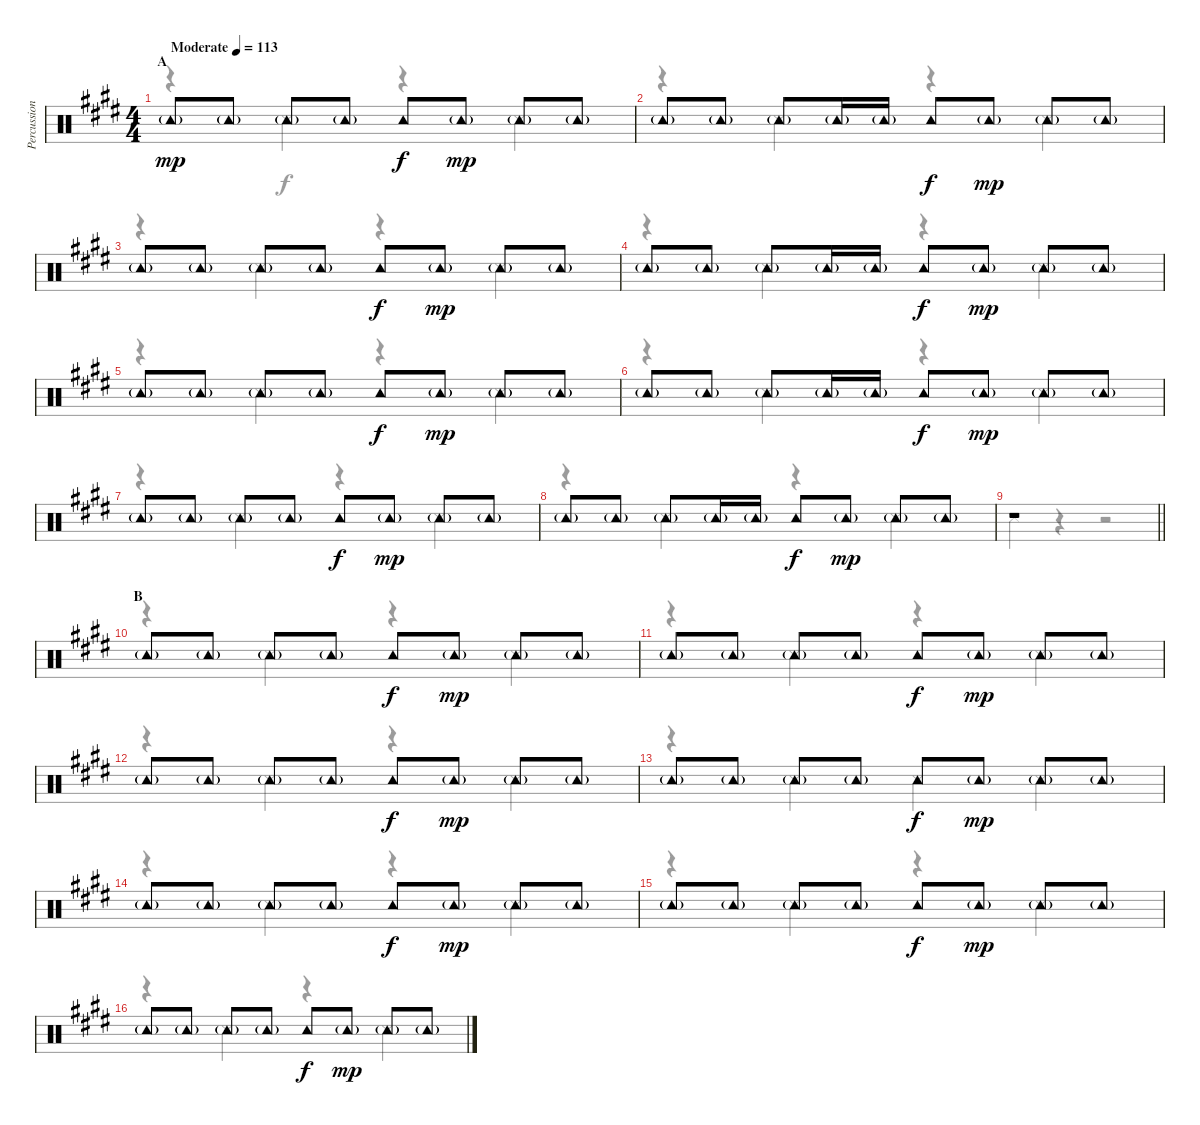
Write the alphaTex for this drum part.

\track ("Percussion" "Percussion") {instrument percussion}
\staff {score}
\articulation defaults
\voice
\ts (4 4)
\section ("" "A")
\tempo (113 "Moderate")
\clef neutral
\ks e "Tambourine (hit)"{g}.8{dy mp} "Tambourine (hit)"{g}.8 "Tambourine (hit)"{g}.8 "Tambourine (hit)"{g}.8 "Tambourine (hit)".8{dy f} "Tambourine (hit)"{g}.8{dy mp} "Tambourine (hit)"{g}.8 "Tambourine (hit)"{g}.8
|
"Tambourine (hit)"{g}.8 "Tambourine (hit)"{g}.8 "Tambourine (hit)"{g}.8 "Tambourine (hit)"{g}.16 "Tambourine (hit)"{g}.16 "Tambourine (hit)".8{dy f} "Tambourine (hit)"{g}.8{dy mp} "Tambourine (hit)"{g}.8 "Tambourine (hit)"{g}.8 |
"Tambourine (hit)"{g}.8 "Tambourine (hit)"{g}.8 "Tambourine (hit)"{g}.8 "Tambourine (hit)"{g}.8 "Tambourine (hit)".8{dy f} "Tambourine (hit)"{g}.8{dy mp} "Tambourine (hit)"{g}.8 "Tambourine (hit)"{g}.8 |
"Tambourine (hit)"{g}.8 "Tambourine (hit)"{g}.8 "Tambourine (hit)"{g}.8 "Tambourine (hit)"{g}.16 "Tambourine (hit)"{g}.16 "Tambourine (hit)".8{dy f} "Tambourine (hit)"{g}.8{dy mp} "Tambourine (hit)"{g}.8 "Tambourine (hit)"{g}.8 |
"Tambourine (hit)"{g}.8 "Tambourine (hit)"{g}.8 "Tambourine (hit)"{g}.8 "Tambourine (hit)"{g}.8 "Tambourine (hit)".8{dy f} "Tambourine (hit)"{g}.8{dy mp} "Tambourine (hit)"{g}.8 "Tambourine (hit)"{g}.8 |
"Tambourine (hit)"{g}.8 "Tambourine (hit)"{g}.8 "Tambourine (hit)"{g}.8 "Tambourine (hit)"{g}.16 "Tambourine (hit)"{g}.16 "Tambourine (hit)".8{dy f} "Tambourine (hit)"{g}.8{dy mp} "Tambourine (hit)"{g}.8 "Tambourine (hit)"{g}.8 |
"Tambourine (hit)"{g}.8 "Tambourine (hit)"{g}.8 "Tambourine (hit)"{g}.8 "Tambourine (hit)"{g}.8 "Tambourine (hit)".8{dy f} "Tambourine (hit)"{g}.8{dy mp} "Tambourine (hit)"{g}.8 "Tambourine (hit)"{g}.8 |
"Tambourine (hit)"{g}.8 "Tambourine (hit)"{g}.8 "Tambourine (hit)"{g}.8 "Tambourine (hit)"{g}.16 "Tambourine (hit)"{g}.16 "Tambourine (hit)".8{dy f} "Tambourine (hit)"{g}.8{dy mp} "Tambourine (hit)"{g}.8 "Tambourine (hit)"{g}.8 |
\barLineRight lightlight
r.1 |
\section ("" "B")
"Tambourine (hit)"{g}.8 "Tambourine (hit)"{g}.8 "Tambourine (hit)"{g}.8 "Tambourine (hit)"{g}.8 "Tambourine (hit)".8{dy f} "Tambourine (hit)"{g}.8{dy mp} "Tambourine (hit)"{g}.8 "Tambourine (hit)"{g}.8 |
"Tambourine (hit)"{g}.8 "Tambourine (hit)"{g}.8 "Tambourine (hit)"{g}.8 "Tambourine (hit)"{g}.8 "Tambourine (hit)".8{dy f} "Tambourine (hit)"{g}.8{dy mp} "Tambourine (hit)"{g}.8 "Tambourine (hit)"{g}.8 |
"Tambourine (hit)"{g}.8 "Tambourine (hit)"{g}.8 "Tambourine (hit)"{g}.8 "Tambourine (hit)"{g}.8 "Tambourine (hit)".8{dy f} "Tambourine (hit)"{g}.8{dy mp} "Tambourine (hit)"{g}.8 "Tambourine (hit)"{g}.8 |
"Tambourine (hit)"{g}.8 "Tambourine (hit)"{g}.8 "Tambourine (hit)"{g}.8 "Tambourine (hit)"{g}.8 "Tambourine (hit)".8{dy f} "Tambourine (hit)"{g}.8{dy mp} "Tambourine (hit)"{g}.8 "Tambourine (hit)"{g}.8 |
"Tambourine (hit)"{g}.8 "Tambourine (hit)"{g}.8 "Tambourine (hit)"{g}.8 "Tambourine (hit)"{g}.8 "Tambourine (hit)".8{dy f} "Tambourine (hit)"{g}.8{dy mp} "Tambourine (hit)"{g}.8 "Tambourine (hit)"{g}.8 |
"Tambourine (hit)"{g}.8 "Tambourine (hit)"{g}.8 "Tambourine (hit)"{g}.8 "Tambourine (hit)"{g}.8 "Tambourine (hit)".8{dy f} "Tambourine (hit)"{g}.8{dy mp} "Tambourine (hit)"{g}.8 "Tambourine (hit)"{g}.8 |
"Tambourine (hit)"{g}.8 "Tambourine (hit)"{g}.8 "Tambourine (hit)"{g}.8 "Tambourine (hit)"{g}.8 "Tambourine (hit)".8{dy f} "Tambourine (hit)"{g}.8{dy mp} "Tambourine (hit)"{g}.8 "Tambourine (hit)"{g}.8
\voice
\clef neutral
\ottava regular
\simile none
\ks e
r.4{dy f} "Snare (side stick) 3".4 r.4 "Snare (side stick) 3".4 |
r.4 "Snare (side stick) 3".4 r.4 "Snare (side stick) 3".4 |
r.4 "Snare (side stick) 3".4 r.4 "Snare (side stick) 3".4 |
r.4 "Snare (side stick) 3".4 r.4 "Snare (side stick) 3".4 |
r.4 "Snare (side stick) 3".4 r.4 "Snare (side stick) 3".4 |
r.4 "Snare (side stick) 3".4 r.4 "Snare (side stick) 3".4 |
r.4 "Snare (side stick) 3".4 r.4 "Snare (side stick) 3".4 |
r.4 "Snare (side stick) 3".4 r.4 "Snare (side stick) 3".4 |
\barLineRight lightlight "Snare (side stick) 3".4
r.4 r.2 |
r.4 "Snare (side stick) 3".4 r.4 "Snare (side stick) 3".4 |
r.4 "Snare (side stick) 3".4 r.4 "Snare (side stick) 3".4 |
r.4 "Snare (side stick) 3".4 r.4 "Snare (side stick) 3".4 |
r.4 "Snare (side stick) 3".4 "Snare (side stick) 3".4 "Snare (side stick) 3".4 |
r.4 "Snare (side stick) 3".4 r.4 "Snare (side stick) 3".4 |
r.4 "Snare (side stick) 3".4 r.4 "Snare (side stick) 3".4 |
r.4 "Snare (side stick) 3".4 r.4 "Snare (side stick) 3".4
